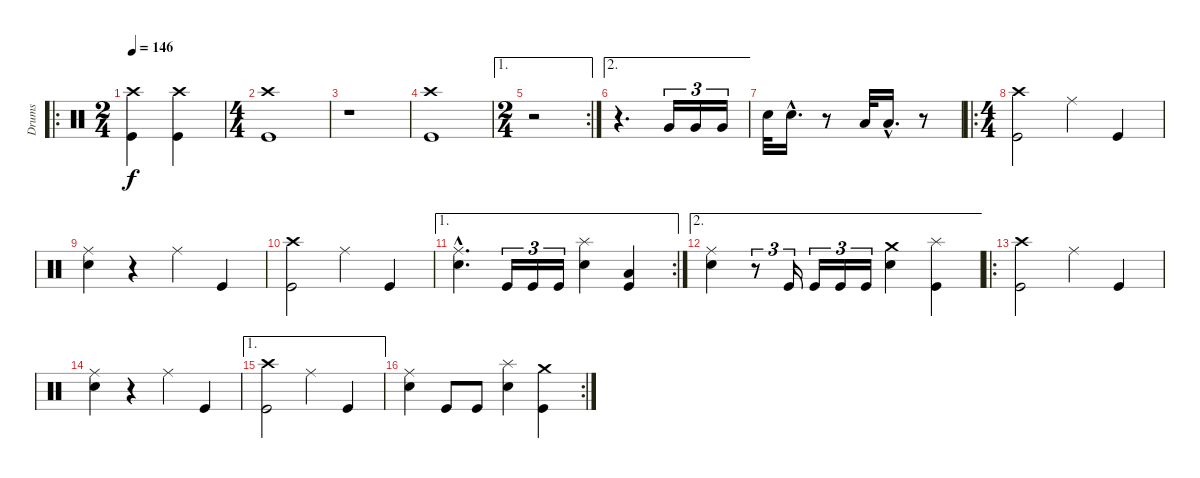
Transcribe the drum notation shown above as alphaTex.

\track ("Drums" "Drums") {instrument percussion}
\staff {score}
\articulation defaults
\ro
\ts (2 4)
\tempo 146
\tempo 138
\tempo 146
\clef neutral
\ks c
("Crash high (hit)" "Kick (hit)").4{dy f} ("Crash high (hit)" "Kick (hit)").4 |
\ts (4 4)
("Crash high (hit)" "Kick (hit)").1 |
r.1 |
("Crash high (hit)" "Kick (hit)").1 |
\ae 1
\rc 2
\ts (2 4)
r.2 |
\ae 2
r.4{d} "Very Low Tom (hit)".16{tu (3 2)} "Very Low Tom (hit)".16{tu (3 2)} "Very Low Tom (hit)".16{tu (3 2)} |
"Electric Snare (hit)".32 "Electric Snare (hit)"{hac}.16{d} r.8 "Low Floor Tom (hit)".32 "Low Floor Tom (hit)"{hac}.16{d} r.8 |
\ro
\ts (4 4)
("Crash high (hit)" "Kick (hit)").2 "Ride (middle)".4 "Kick (hit)".4 |
("Ride (middle)" "Electric Snare (hit)").4 r.4 "Ride (middle)".4 "Kick (hit)".4 |
("Crash high (hit)" "Kick (hit)").2 "Ride (middle)".4 "Kick (hit)".4 |
\ae 1
\rc 2
("Ride (middle)"{hac} "Electric Snare (hit)"{hac}).4{d} "Kick (hit)".16{tu (3 2)} "Kick (hit)".16{tu (3 2)} "Kick (hit)".16{tu (3 2)} ("Splash (hit)" "Electric Snare (hit)").4 ("Low Floor Tom (hit)" "Kick (hit)").4 |
\ae 2
("Ride (middle)" "Electric Snare (hit)").4 r.8{tu (3 2)} "Kick (hit)".16{tu (3 2)} "Kick (hit)".16{tu (3 2)} "Kick (hit)".16{tu (3 2)} "Kick (hit)".16{tu (3 2)} ("Crash medium (hit)" "Electric Snare (hit)").4 ("Splash (hit)" "Kick (hit)").4 |
\ro
("Crash high (hit)" "Kick (hit)").2 "Ride (middle)".4 "Kick (hit)".4 |
("Ride (middle)" "Electric Snare (hit)").4 r.4 "Ride (middle)".4 "Kick (hit)".4 |
\ae 1
("Crash high (hit)" "Kick (hit)").2 "Ride (middle)".4 "Kick (hit)".4 |
\rc 2
("Ride (middle)" "Electric Snare (hit)").4 "Kick (hit)".8 "Kick (hit)".8 ("Splash (hit)" "Electric Snare (hit)").4 ("Crash medium (hit)" "Kick (hit)").4
